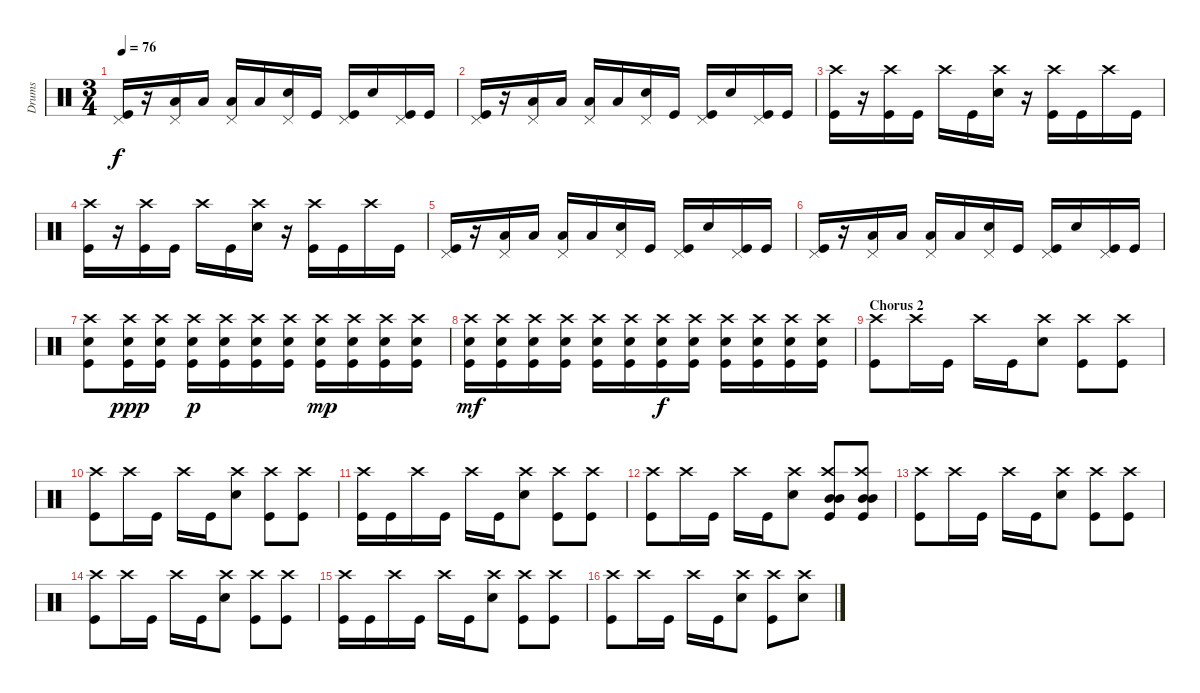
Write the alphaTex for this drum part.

\track ("Drums" "Drums") {instrument percussion}
\staff {score}
\articulation defaults
\ts (3 4)
\tempo 76
\clef neutral
\ks c
("Pedal Hi-Hat (hit)" "Kick (hit)").16{dy f} r.16 ("Pedal Hi-Hat (hit)" "Low Tom (hit)").16 "Low Tom (hit)".16 ("Pedal Hi-Hat (hit)" "Low Tom (hit)").16 "Low Tom (hit)".16 ("Pedal Hi-Hat (hit)" "Snare (hit) 2").16 "Kick (hit)".16 ("Pedal Hi-Hat (hit)" "Kick (hit)").16 "Snare (hit) 2".16 ("Pedal Hi-Hat (hit)" "Kick (hit)").16 "Kick (hit)".16 |
("Pedal Hi-Hat (hit)" "Kick (hit)").16 r.16 ("Pedal Hi-Hat (hit)" "Low Tom (hit)").16 "Low Tom (hit)".16 ("Pedal Hi-Hat (hit)" "Low Tom (hit)").16 "Low Tom (hit)".16 ("Pedal Hi-Hat (hit)" "Snare (hit) 2").16 "Kick (hit)".16 ("Pedal Hi-Hat (hit)" "Kick (hit)").16 "Snare (hit) 2".16 ("Pedal Hi-Hat (hit)" "Kick (hit)").16 "Kick (hit)".16 |
("Crash high (hit)" "Kick (hit)").16 r.16 ("Crash high (hit)" "Kick (hit)").16 "Kick (hit)".16 "Crash high (hit)".16 "Kick (hit)".16 ("Crash high (hit)" "Snare (hit) 2").16 r.16 ("Crash high (hit)" "Kick (hit)").16 "Kick (hit)".16 "Crash high (hit)".16 "Kick (hit)".16 |
("Crash high (hit)" "Kick (hit)").16 r.16 ("Crash high (hit)" "Kick (hit)").16 "Kick (hit)".16 "Crash high (hit)".16 "Kick (hit)".16 ("Crash high (hit)" "Snare (hit) 2").16 r.16 ("Crash high (hit)" "Kick (hit)").16 "Kick (hit)".16 "Crash high (hit)".16 "Kick (hit)".16 |
("Pedal Hi-Hat (hit)" "Kick (hit)").16 r.16 ("Pedal Hi-Hat (hit)" "Low Tom (hit)").16 "Low Tom (hit)".16 ("Pedal Hi-Hat (hit)" "Low Tom (hit)").16 "Low Tom (hit)".16 ("Pedal Hi-Hat (hit)" "Snare (hit) 2").16 "Kick (hit)".16 ("Pedal Hi-Hat (hit)" "Kick (hit)").16 "Snare (hit) 2".16 ("Pedal Hi-Hat (hit)" "Kick (hit)").16 "Kick (hit)".16 |
("Pedal Hi-Hat (hit)" "Kick (hit)").16 r.16 ("Pedal Hi-Hat (hit)" "Low Tom (hit)").16 "Low Tom (hit)".16 ("Pedal Hi-Hat (hit)" "Low Tom (hit)").16 "Low Tom (hit)".16 ("Pedal Hi-Hat (hit)" "Snare (hit) 2").16 "Kick (hit)".16 ("Pedal Hi-Hat (hit)" "Kick (hit)").16 "Snare (hit) 2".16 ("Pedal Hi-Hat (hit)" "Kick (hit)").16 "Kick (hit)".16 |
("Crash high (hit)" "Snare (hit) 2" "Kick (hit)").8 ("Crash high (hit)" "Snare (hit) 2" "Kick (hit)").16{dy ppp} ("Crash high (hit)" "Snare (hit) 2" "Kick (hit)").16 ("Crash high (hit)" "Snare (hit) 2" "Kick (hit)").16{dy p} ("Crash high (hit)" "Snare (hit) 2" "Kick (hit)").16 ("Crash high (hit)" "Snare (hit) 2" "Kick (hit)").16 ("Crash high (hit)" "Snare (hit) 2" "Kick (hit)").16 ("Crash high (hit)" "Snare (hit) 2" "Kick (hit)").16{dy mp} ("Crash high (hit)" "Snare (hit) 2" "Kick (hit)").16 ("Crash high (hit)" "Snare (hit) 2" "Kick (hit)").16 ("Crash high (hit)" "Snare (hit) 2" "Kick (hit)").16 |
("Crash high (hit)" "Snare (hit) 2" "Kick (hit)").16{dy mf} ("Crash high (hit)" "Snare (hit) 2" "Kick (hit)").16 ("Crash high (hit)" "Snare (hit) 2" "Kick (hit)").16 ("Crash high (hit)" "Snare (hit) 2" "Kick (hit)").16 ("Crash high (hit)" "Snare (hit) 2" "Kick (hit)").16 ("Crash high (hit)" "Snare (hit) 2" "Kick (hit)").16 ("Crash high (hit)" "Snare (hit) 2" "Kick (hit)").16{dy f} ("Crash high (hit)" "Snare (hit) 2" "Kick (hit)").16 ("Crash high (hit)" "Snare (hit) 2" "Kick (hit)").16 ("Crash high (hit)" "Snare (hit) 2" "Kick (hit)").16 ("Crash high (hit)" "Snare (hit) 2" "Kick (hit)").16 ("Crash high (hit)" "Snare (hit) 2" "Kick (hit)").16 |
\section ("" "Chorus 2")
("Crash high (hit)" "Kick (hit)").8 "Crash high (hit)".16 "Kick (hit)".16 "Crash high (hit)".16 "Kick (hit)".16 ("Crash high (hit)" "Snare (hit) 2").8 ("Crash high (hit)" "Kick (hit)").8 ("Crash high (hit)" "Kick (hit)").8 |
("Crash high (hit)" "Kick (hit)").8 "Crash high (hit)".16 "Kick (hit)".16 "Crash high (hit)".16 "Kick (hit)".16 ("Crash high (hit)" "Snare (hit) 2").8 ("Crash high (hit)" "Kick (hit)").8 ("Crash high (hit)" "Kick (hit)").8 |
("Crash high (hit)" "Kick (hit)").16 "Kick (hit)".16 "Crash high (hit)".16 "Kick (hit)".16 "Crash high (hit)".16 "Kick (hit)".16 ("Crash high (hit)" "Snare (hit) 2").8 ("Crash high (hit)" "Kick (hit)").8 ("Crash high (hit)" "Kick (hit)").8 |
("Crash high (hit)" "Kick (hit)").8 "Crash high (hit)".16 "Kick (hit)".16 "Crash high (hit)".16 "Kick (hit)".16 ("Crash high (hit)" "Snare (hit) 2").8 ("Crash high (hit)" "Mid Tom (hit)" "Mid Tom (hit)" "Kick (hit)").8 ("Crash high (hit)" "Mid Tom (hit)" "Mid Tom (hit)" "Kick (hit)").8 |
("Crash high (hit)" "Kick (hit)").8 "Crash high (hit)".16 "Kick (hit)".16 "Crash high (hit)".16 "Kick (hit)".16 ("Crash high (hit)" "Snare (hit) 2").8 ("Crash high (hit)" "Kick (hit)").8 ("Crash high (hit)" "Kick (hit)").8 |
("Crash high (hit)" "Kick (hit)").8 "Crash high (hit)".16 "Kick (hit)".16 "Crash high (hit)".16 "Kick (hit)".16 ("Crash high (hit)" "Snare (hit) 2").8 ("Crash high (hit)" "Kick (hit)").8 ("Crash high (hit)" "Kick (hit)").8 |
("Crash high (hit)" "Kick (hit)").16 "Kick (hit)".16 "Crash high (hit)".16 "Kick (hit)".16 "Crash high (hit)".16 "Kick (hit)".16 ("Crash high (hit)" "Snare (hit) 2").8 ("Crash high (hit)" "Kick (hit)").8 ("Crash high (hit)" "Kick (hit)").8 |
("Crash high (hit)" "Kick (hit)").8 "Crash high (hit)".16 "Kick (hit)".16 "Crash high (hit)".16 "Kick (hit)".16 ("Crash high (hit)" "Snare (hit) 2").8 ("Crash high (hit)" "Kick (hit)").8 ("Crash high (hit)" "Snare (hit) 2").8
